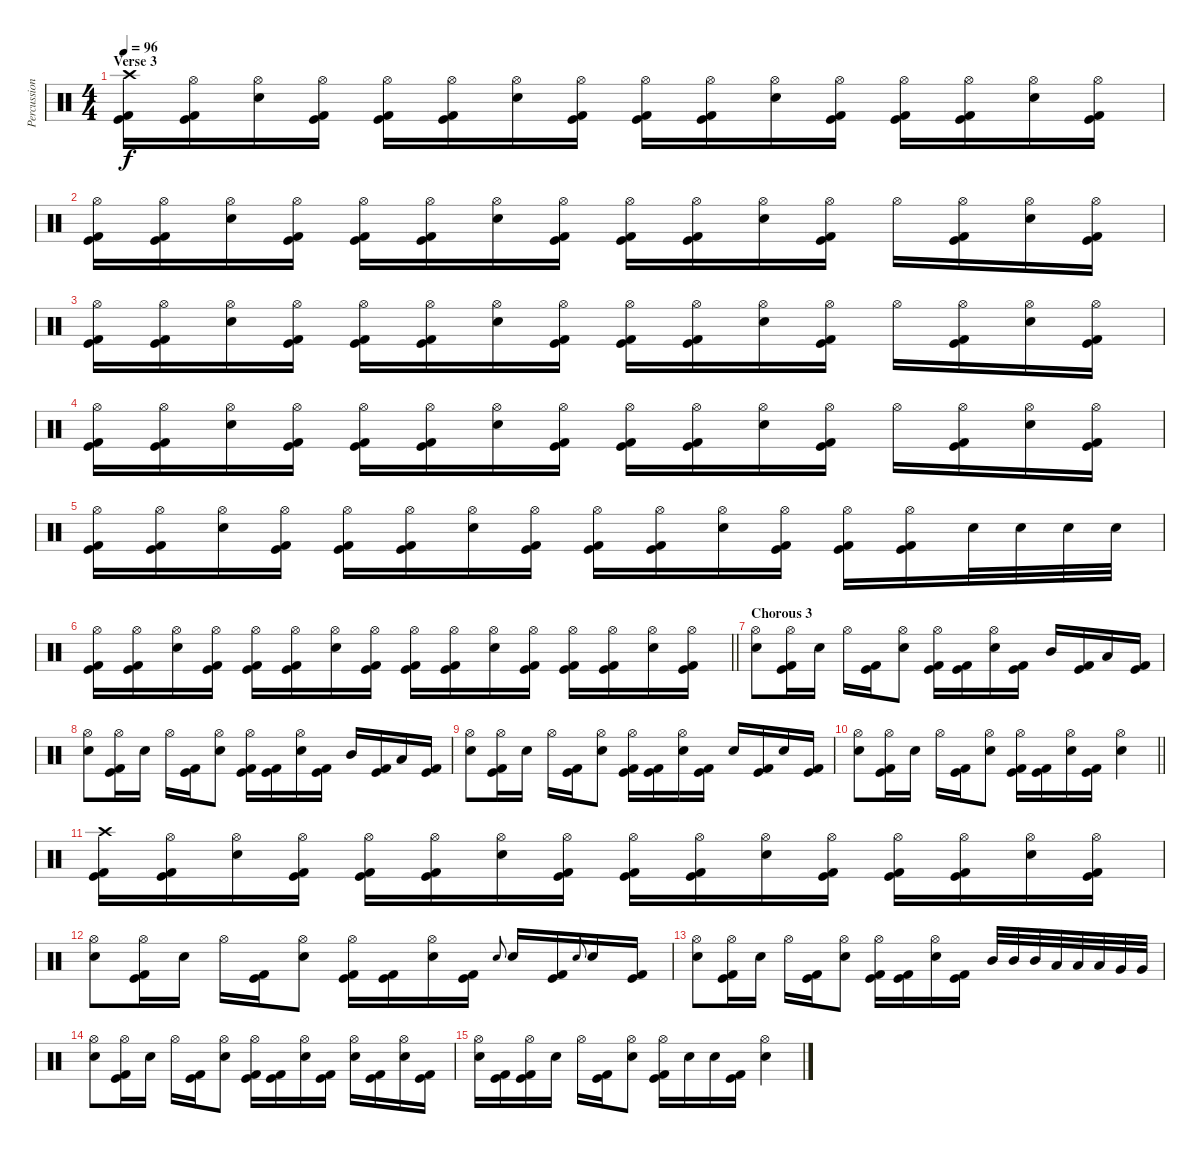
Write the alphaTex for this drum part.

\track ("Percussion" "Percussion") {instrument percussion}
\staff {score}
\articulation defaults
\ts (4 4)
\section ("" "Verse 3")
\tempo 96
\clef neutral
\ks c
("Crash high (hit)" "Kick (hit)" "Kick (hit) 2").16{dy f} ("Hi-Hat (open)" "Kick (hit)" "Kick (hit) 2").16 ("Hi-Hat (open)" "Electric Snare (hit)").16 ("Hi-Hat (open)" "Kick (hit)" "Kick (hit) 2").16 ("Hi-Hat (open)" "Kick (hit)" "Kick (hit) 2").16 ("Hi-Hat (open)" "Kick (hit)" "Kick (hit) 2").16 ("Hi-Hat (open)" "Electric Snare (hit)").16 ("Hi-Hat (open)" "Kick (hit)" "Kick (hit) 2").16 ("Hi-Hat (open)" "Kick (hit)" "Kick (hit) 2").16 ("Hi-Hat (open)" "Kick (hit)" "Kick (hit) 2").16 ("Hi-Hat (open)" "Electric Snare (hit)").16 ("Hi-Hat (open)" "Kick (hit)" "Kick (hit) 2").16 ("Hi-Hat (open)" "Kick (hit)" "Kick (hit) 2").16 ("Hi-Hat (open)" "Kick (hit)" "Kick (hit) 2").16 ("Hi-Hat (open)" "Electric Snare (hit)").16 ("Hi-Hat (open)" "Kick (hit)" "Kick (hit) 2").16 |
("Hi-Hat (open)" "Kick (hit)" "Kick (hit) 2").16 ("Hi-Hat (open)" "Kick (hit)" "Kick (hit) 2").16 ("Hi-Hat (open)" "Electric Snare (hit)").16 ("Hi-Hat (open)" "Kick (hit)" "Kick (hit) 2").16 ("Hi-Hat (open)" "Kick (hit)" "Kick (hit) 2").16 ("Hi-Hat (open)" "Kick (hit)" "Kick (hit) 2").16 ("Hi-Hat (open)" "Electric Snare (hit)").16 ("Hi-Hat (open)" "Kick (hit)" "Kick (hit) 2").16 ("Hi-Hat (open)" "Kick (hit)" "Kick (hit) 2").16 ("Hi-Hat (open)" "Kick (hit)" "Kick (hit) 2").16 ("Hi-Hat (open)" "Electric Snare (hit)").16 ("Hi-Hat (open)" "Kick (hit)" "Kick (hit) 2").16 "Hi-Hat (open)".16 ("Hi-Hat (open)" "Kick (hit)" "Kick (hit) 2").16 ("Hi-Hat (open)" "Electric Snare (hit)").16 ("Hi-Hat (open)" "Kick (hit)" "Kick (hit) 2").16 |
("Hi-Hat (open)" "Kick (hit)" "Kick (hit) 2").16 ("Hi-Hat (open)" "Kick (hit)" "Kick (hit) 2").16 ("Hi-Hat (open)" "Electric Snare (hit)").16 ("Hi-Hat (open)" "Kick (hit)" "Kick (hit) 2").16 ("Hi-Hat (open)" "Kick (hit)" "Kick (hit) 2").16 ("Hi-Hat (open)" "Kick (hit)" "Kick (hit) 2").16 ("Hi-Hat (open)" "Electric Snare (hit)").16 ("Hi-Hat (open)" "Kick (hit)" "Kick (hit) 2").16 ("Hi-Hat (open)" "Kick (hit)" "Kick (hit) 2").16 ("Hi-Hat (open)" "Kick (hit)" "Kick (hit) 2").16 ("Hi-Hat (open)" "Electric Snare (hit)").16 ("Hi-Hat (open)" "Kick (hit)" "Kick (hit) 2").16 "Hi-Hat (open)".16 ("Hi-Hat (open)" "Kick (hit)" "Kick (hit) 2").16 ("Hi-Hat (open)" "Electric Snare (hit)").16 ("Hi-Hat (open)" "Kick (hit)" "Kick (hit) 2").16 |
("Hi-Hat (open)" "Kick (hit)" "Kick (hit) 2").16 ("Hi-Hat (open)" "Kick (hit)" "Kick (hit) 2").16 ("Hi-Hat (open)" "Electric Snare (hit)").16 ("Hi-Hat (open)" "Kick (hit)" "Kick (hit) 2").16 ("Hi-Hat (open)" "Kick (hit)" "Kick (hit) 2").16 ("Hi-Hat (open)" "Kick (hit)" "Kick (hit) 2").16 ("Hi-Hat (open)" "Electric Snare (hit)").16 ("Hi-Hat (open)" "Kick (hit)" "Kick (hit) 2").16 ("Hi-Hat (open)" "Kick (hit)" "Kick (hit) 2").16 ("Hi-Hat (open)" "Kick (hit)" "Kick (hit) 2").16 ("Hi-Hat (open)" "Electric Snare (hit)").16 ("Hi-Hat (open)" "Kick (hit)" "Kick (hit) 2").16 "Hi-Hat (open)".16 ("Hi-Hat (open)" "Kick (hit)" "Kick (hit) 2").16 ("Hi-Hat (open)" "Electric Snare (hit)").16 ("Hi-Hat (open)" "Kick (hit)" "Kick (hit) 2").16 |
("Hi-Hat (open)" "Kick (hit)" "Kick (hit) 2").16 ("Hi-Hat (open)" "Kick (hit)" "Kick (hit) 2").16 ("Hi-Hat (open)" "Electric Snare (hit)").16 ("Hi-Hat (open)" "Kick (hit)" "Kick (hit) 2").16 ("Hi-Hat (open)" "Kick (hit)" "Kick (hit) 2").16 ("Hi-Hat (open)" "Kick (hit)" "Kick (hit) 2").16 ("Hi-Hat (open)" "Electric Snare (hit)").16 ("Hi-Hat (open)" "Kick (hit)" "Kick (hit) 2").16 ("Hi-Hat (open)" "Kick (hit)" "Kick (hit) 2").16 ("Hi-Hat (open)" "Kick (hit)" "Kick (hit) 2").16 ("Hi-Hat (open)" "Electric Snare (hit)").16 ("Hi-Hat (open)" "Kick (hit)" "Kick (hit) 2").16 ("Hi-Hat (open)" "Kick (hit)" "Kick (hit) 2").16 ("Hi-Hat (open)" "Kick (hit)" "Kick (hit) 2").16 "Electric Snare (hit)".32 "Electric Snare (hit)".32 "Electric Snare (hit)".32 "Electric Snare (hit)".32 |
\barLineRight lightlight
("Hi-Hat (open)" "Kick (hit)" "Kick (hit) 2").16 ("Hi-Hat (open)" "Kick (hit)" "Kick (hit) 2").16 ("Hi-Hat (open)" "Electric Snare (hit)").16 ("Hi-Hat (open)" "Kick (hit)" "Kick (hit) 2").16 ("Hi-Hat (open)" "Kick (hit)" "Kick (hit) 2").16 ("Hi-Hat (open)" "Kick (hit)" "Kick (hit) 2").16 ("Hi-Hat (open)" "Electric Snare (hit)").16 ("Hi-Hat (open)" "Kick (hit)" "Kick (hit) 2").16 ("Hi-Hat (open)" "Kick (hit)" "Kick (hit) 2").16 ("Hi-Hat (open)" "Kick (hit)" "Kick (hit) 2").16 ("Hi-Hat (open)" "Electric Snare (hit)").16 ("Hi-Hat (open)" "Kick (hit)" "Kick (hit) 2").16 ("Hi-Hat (open)" "Kick (hit)" "Kick (hit) 2").16 ("Hi-Hat (open)" "Kick (hit)" "Kick (hit) 2").16 ("Hi-Hat (open)" "Electric Snare (hit)").16 ("Hi-Hat (open)" "Kick (hit)" "Kick (hit) 2").16 |
\section ("" "Chorous 3")
("Hi-Hat (open)" "Electric Snare (hit)").8 ("Hi-Hat (open)" "Kick (hit)" "Kick (hit) 2").16 "Electric Snare (hit)".16 "Hi-Hat (open)".16 ("Kick (hit)" "Kick (hit) 2").16 ("Hi-Hat (open)" "Electric Snare (hit)").8 ("Hi-Hat (open)" "Kick (hit)" "Kick (hit) 2").16 ("Kick (hit)" "Kick (hit) 2").16 ("Hi-Hat (open)" "Electric Snare (hit)").16 ("Kick (hit)" "Kick (hit) 2").16 "Mid Tom (hit)".16 ("Kick (hit)" "Kick (hit) 2").16 "Low Tom (hit)".16 ("Kick (hit)" "Kick (hit) 2").16 |
("Hi-Hat (open)" "Electric Snare (hit)").8 ("Hi-Hat (open)" "Kick (hit)" "Kick (hit) 2").16 "Electric Snare (hit)".16 "Hi-Hat (open)".16 ("Kick (hit)" "Kick (hit) 2").16 ("Hi-Hat (open)" "Electric Snare (hit)").8 ("Hi-Hat (open)" "Kick (hit)" "Kick (hit) 2").16 ("Kick (hit)" "Kick (hit) 2").16 ("Hi-Hat (open)" "Electric Snare (hit)").16 ("Kick (hit)" "Kick (hit) 2").16 "Mid Tom (hit)".16 ("Kick (hit)" "Kick (hit) 2").16 "Low Tom (hit)".16 ("Kick (hit)" "Kick (hit) 2").16 |
("Hi-Hat (open)" "Electric Snare (hit)").8 ("Hi-Hat (open)" "Kick (hit)" "Kick (hit) 2").16 "Electric Snare (hit)".16 "Hi-Hat (open)".16 ("Kick (hit)" "Kick (hit) 2").16 ("Hi-Hat (open)" "Electric Snare (hit)").8 ("Hi-Hat (open)" "Kick (hit)" "Kick (hit) 2").16 ("Kick (hit)" "Kick (hit) 2").16 ("Hi-Hat (open)" "Electric Snare (hit)").16 ("Kick (hit)" "Kick (hit) 2").16 "Electric Snare (hit)".16 ("Kick (hit)" "Kick (hit) 2").16 "Electric Snare (hit)".16 ("Kick (hit)" "Kick (hit) 2").16 |
\barLineRight lightlight
("Hi-Hat (open)" "Electric Snare (hit)").8 ("Hi-Hat (open)" "Kick (hit)" "Kick (hit) 2").16 "Electric Snare (hit)".16 "Hi-Hat (open)".16 ("Kick (hit)" "Kick (hit) 2").16 ("Hi-Hat (open)" "Electric Snare (hit)").8 ("Hi-Hat (open)" "Kick (hit)" "Kick (hit) 2").16 ("Kick (hit)" "Kick (hit) 2").16 ("Hi-Hat (open)" "Electric Snare (hit)").16 ("Kick (hit)" "Kick (hit) 2").16 ("Hi-Hat (open)" "Electric Snare (hit)").4 |
\section ("" "")
("Crash high (hit)" "Kick (hit)" "Kick (hit) 2").16 ("Hi-Hat (open)" "Kick (hit)" "Kick (hit) 2").16 ("Hi-Hat (open)" "Electric Snare (hit)").16 ("Hi-Hat (open)" "Kick (hit)" "Kick (hit) 2").16 ("Hi-Hat (open)" "Kick (hit)" "Kick (hit) 2").16 ("Hi-Hat (open)" "Kick (hit)" "Kick (hit) 2").16 ("Hi-Hat (open)" "Electric Snare (hit)").16 ("Hi-Hat (open)" "Kick (hit)" "Kick (hit) 2").16 ("Hi-Hat (open)" "Kick (hit)" "Kick (hit) 2").16 ("Hi-Hat (open)" "Kick (hit)" "Kick (hit) 2").16 ("Hi-Hat (open)" "Electric Snare (hit)").16 ("Hi-Hat (open)" "Kick (hit)" "Kick (hit) 2").16 ("Hi-Hat (open)" "Kick (hit)" "Kick (hit) 2").16 ("Hi-Hat (open)" "Kick (hit)" "Kick (hit) 2").16 ("Hi-Hat (open)" "Electric Snare (hit)").16 ("Hi-Hat (open)" "Kick (hit)" "Kick (hit) 2").16 |
("Hi-Hat (open)" "Electric Snare (hit)").8 ("Hi-Hat (open)" "Kick (hit)" "Kick (hit) 2").16 "Electric Snare (hit)".16 "Hi-Hat (open)".16 ("Kick (hit)" "Kick (hit) 2").16 ("Hi-Hat (open)" "Electric Snare (hit)").8 ("Hi-Hat (open)" "Kick (hit)" "Kick (hit) 2").16 ("Kick (hit)" "Kick (hit) 2").16 ("Hi-Hat (open)" "Electric Snare (hit)").16 ("Kick (hit)" "Kick (hit) 2").16 "Electric Snare (hit)".8{gr onbeat} "Electric Snare (hit)".16 ("Kick (hit)" "Kick (hit) 2").16 "Electric Snare (hit)".8{gr onbeat} "Electric Snare (hit)".16 ("Kick (hit)" "Kick (hit) 2").16 |
("Hi-Hat (open)" "Electric Snare (hit)").8 ("Hi-Hat (open)" "Kick (hit)" "Kick (hit) 2").16 "Electric Snare (hit)".16 "Hi-Hat (open)".16 ("Kick (hit)" "Kick (hit) 2").16 ("Hi-Hat (open)" "Electric Snare (hit)").8 ("Hi-Hat (open)" "Kick (hit)" "Kick (hit) 2").16 ("Kick (hit)" "Kick (hit) 2").16 ("Hi-Hat (open)" "Electric Snare (hit)").16 ("Kick (hit)" "Kick (hit) 2").16 "Mid Tom (hit)".32 "Mid Tom (hit)".32 "Mid Tom (hit)".32 "Low Tom (hit)".32 "Low Tom (hit)".32 "Low Tom (hit)".32 "Very Low Tom (hit)".32 "Very Low Tom (hit)".32 |
("Hi-Hat (open)" "Electric Snare (hit)").8 ("Hi-Hat (open)" "Kick (hit)" "Kick (hit) 2").16 "Electric Snare (hit)".16 "Hi-Hat (open)".16 ("Kick (hit)" "Kick (hit) 2").16 ("Hi-Hat (open)" "Electric Snare (hit)").8 ("Hi-Hat (open)" "Kick (hit)" "Kick (hit) 2").16 ("Kick (hit)" "Kick (hit) 2").16 ("Hi-Hat (open)" "Electric Snare (hit)").16 ("Kick (hit)" "Kick (hit) 2").16 ("Hi-Hat (open)" "Electric Snare (hit)").16 ("Kick (hit)" "Kick (hit) 2").16 ("Hi-Hat (open)" "Electric Snare (hit)").16 ("Kick (hit)" "Kick (hit) 2").16 |
("Hi-Hat (open)" "Electric Snare (hit)").16 ("Kick (hit)" "Kick (hit) 2").16 ("Hi-Hat (open)" "Kick (hit)" "Kick (hit) 2").16 "Electric Snare (hit)".16 "Hi-Hat (open)".16 ("Kick (hit)" "Kick (hit) 2").16 ("Hi-Hat (open)" "Electric Snare (hit)").8 ("Hi-Hat (open)" "Kick (hit)" "Kick (hit) 2").16 "Electric Snare (hit)".16 "Electric Snare (hit)".16 ("Kick (hit)" "Kick (hit) 2").16 ("Hi-Hat (open)" "Electric Snare (hit)").4
